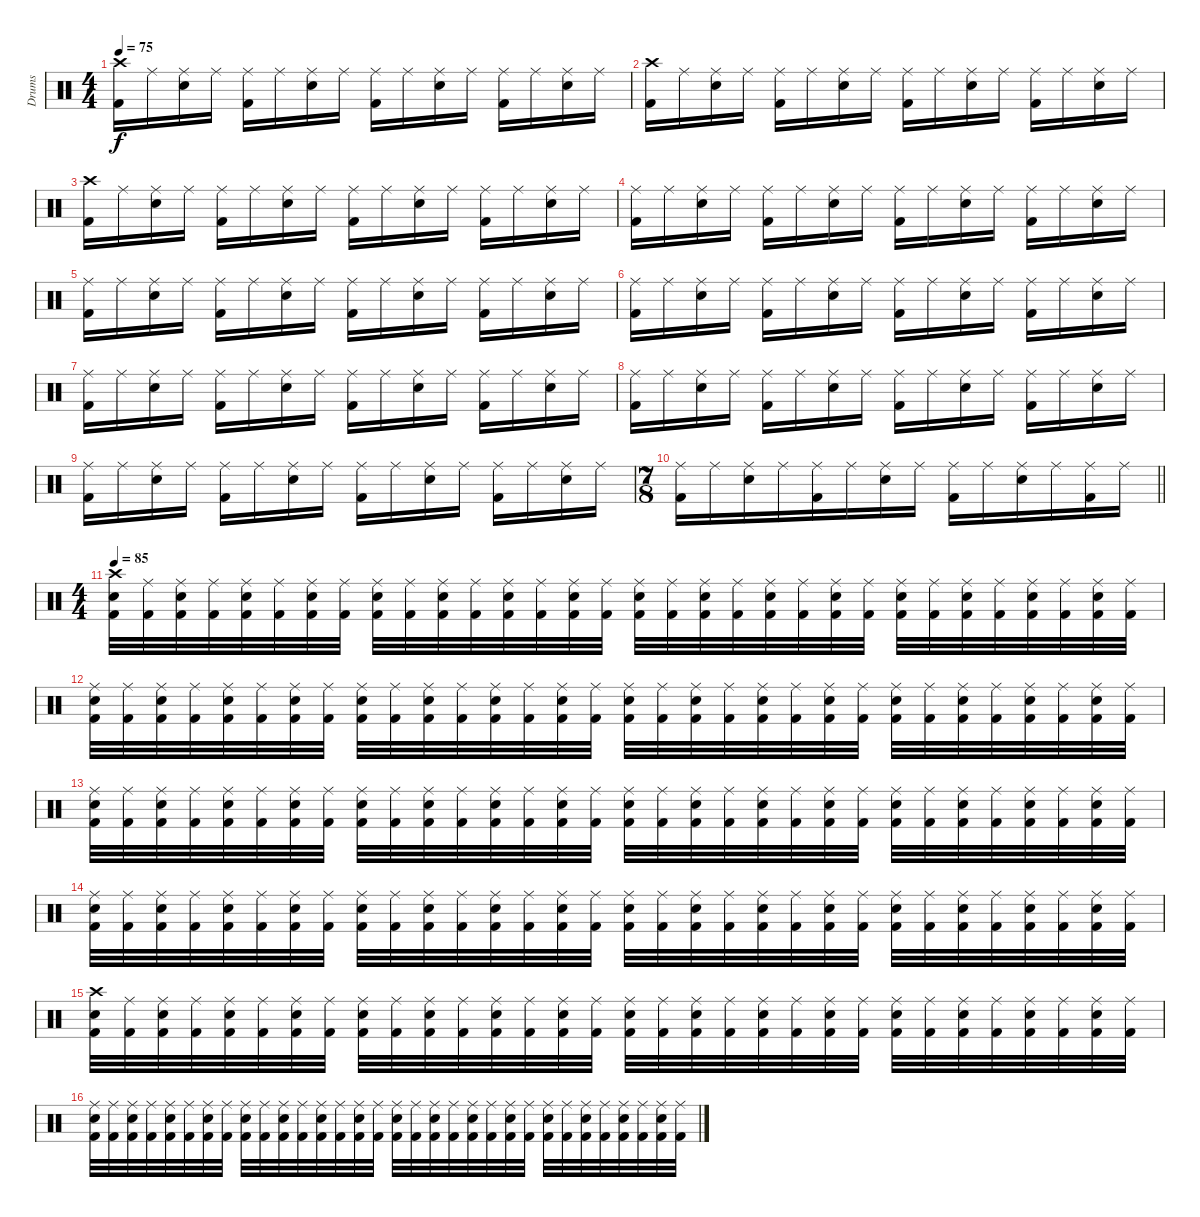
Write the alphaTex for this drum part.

\track ("Drums" "Drums") {instrument percussion}
\staff {score}
\articulation defaults
\ts (4 4)
\tempo 75
\clef neutral
\ks c
("Crash high (hit)" "Kick (hit) 2").16{dy f} "Ride (middle)".16 ("Ride (middle)" "Electric Snare (hit)").16 "Ride (middle)".16 ("Ride (middle)" "Kick (hit) 2").16 "Ride (middle)".16 ("Ride (middle)" "Electric Snare (hit)").16 "Ride (middle)".16 ("Ride (middle)" "Kick (hit) 2").16 "Ride (middle)".16 ("Ride (middle)" "Electric Snare (hit)").16 "Ride (middle)".16 ("Ride (middle)" "Kick (hit) 2").16 "Ride (middle)".16 ("Ride (middle)" "Electric Snare (hit)").16 "Ride (middle)".16 |
("Crash high (hit)" "Kick (hit) 2").16 "Ride (middle)".16 ("Ride (middle)" "Electric Snare (hit)").16 "Ride (middle)".16 ("Ride (middle)" "Kick (hit) 2").16 "Ride (middle)".16 ("Ride (middle)" "Electric Snare (hit)").16 "Ride (middle)".16 ("Ride (middle)" "Kick (hit) 2").16 "Ride (middle)".16 ("Ride (middle)" "Electric Snare (hit)").16 "Ride (middle)".16 ("Ride (middle)" "Kick (hit) 2").16 "Ride (middle)".16 ("Ride (middle)" "Electric Snare (hit)").16 "Ride (middle)".16 |
("Crash high (hit)" "Kick (hit) 2").16 "Ride (middle)".16 ("Ride (middle)" "Electric Snare (hit)").16 "Ride (middle)".16 ("Ride (middle)" "Kick (hit) 2").16 "Ride (middle)".16 ("Ride (middle)" "Electric Snare (hit)").16 "Ride (middle)".16 ("Ride (middle)" "Kick (hit) 2").16 "Ride (middle)".16 ("Ride (middle)" "Electric Snare (hit)").16 "Ride (middle)".16 ("Ride (middle)" "Kick (hit) 2").16 "Ride (middle)".16 ("Ride (middle)" "Electric Snare (hit)").16 "Ride (middle)".16 |
("Ride (middle)" "Kick (hit) 2").16 "Ride (middle)".16 ("Ride (middle)" "Electric Snare (hit)").16 "Ride (middle)".16 ("Ride (middle)" "Kick (hit) 2").16 "Ride (middle)".16 ("Ride (middle)" "Electric Snare (hit)").16 "Ride (middle)".16 ("Ride (middle)" "Kick (hit) 2").16 "Ride (middle)".16 ("Ride (middle)" "Electric Snare (hit)").16 "Ride (middle)".16 ("Ride (middle)" "Kick (hit) 2").16 "Ride (middle)".16 ("Ride (middle)" "Electric Snare (hit)").16 "Ride (middle)".16 |
("Ride (middle)" "Kick (hit) 2").16 "Ride (middle)".16 ("Ride (middle)" "Electric Snare (hit)").16 "Ride (middle)".16 ("Ride (middle)" "Kick (hit) 2").16 "Ride (middle)".16 ("Ride (middle)" "Electric Snare (hit)").16 "Ride (middle)".16 ("Ride (middle)" "Kick (hit) 2").16 "Ride (middle)".16 ("Ride (middle)" "Electric Snare (hit)").16 "Ride (middle)".16 ("Ride (middle)" "Kick (hit) 2").16 "Ride (middle)".16 ("Ride (middle)" "Electric Snare (hit)").16 "Ride (middle)".16 |
("Ride (middle)" "Kick (hit) 2").16 "Ride (middle)".16 ("Ride (middle)" "Electric Snare (hit)").16 "Ride (middle)".16 ("Ride (middle)" "Kick (hit) 2").16 "Ride (middle)".16 ("Ride (middle)" "Electric Snare (hit)").16 "Ride (middle)".16 ("Ride (middle)" "Kick (hit) 2").16 "Ride (middle)".16 ("Ride (middle)" "Electric Snare (hit)").16 "Ride (middle)".16 ("Ride (middle)" "Kick (hit) 2").16 "Ride (middle)".16 ("Ride (middle)" "Electric Snare (hit)").16 "Ride (middle)".16 |
("Ride (middle)" "Kick (hit) 2").16 "Ride (middle)".16 ("Ride (middle)" "Electric Snare (hit)").16 "Ride (middle)".16 ("Ride (middle)" "Kick (hit) 2").16 "Ride (middle)".16 ("Ride (middle)" "Electric Snare (hit)").16 "Ride (middle)".16 ("Ride (middle)" "Kick (hit) 2").16 "Ride (middle)".16 ("Ride (middle)" "Electric Snare (hit)").16 "Ride (middle)".16 ("Ride (middle)" "Kick (hit) 2").16 "Ride (middle)".16 ("Ride (middle)" "Electric Snare (hit)").16 "Ride (middle)".16 |
("Ride (middle)" "Kick (hit) 2").16 "Ride (middle)".16 ("Ride (middle)" "Electric Snare (hit)").16 "Ride (middle)".16 ("Ride (middle)" "Kick (hit) 2").16 "Ride (middle)".16 ("Ride (middle)" "Electric Snare (hit)").16 "Ride (middle)".16 ("Ride (middle)" "Kick (hit) 2").16 "Ride (middle)".16 ("Ride (middle)" "Electric Snare (hit)").16 "Ride (middle)".16 ("Ride (middle)" "Kick (hit) 2").16 "Ride (middle)".16 ("Ride (middle)" "Electric Snare (hit)").16 "Ride (middle)".16 |
("Ride (middle)" "Kick (hit) 2").16 "Ride (middle)".16 ("Ride (middle)" "Electric Snare (hit)").16 "Ride (middle)".16 ("Ride (middle)" "Kick (hit) 2").16 "Ride (middle)".16 ("Ride (middle)" "Electric Snare (hit)").16 "Ride (middle)".16 ("Ride (middle)" "Kick (hit) 2").16 "Ride (middle)".16 ("Ride (middle)" "Electric Snare (hit)").16 "Ride (middle)".16 ("Ride (middle)" "Kick (hit) 2").16 "Ride (middle)".16 ("Ride (middle)" "Electric Snare (hit)").16 "Ride (middle)".16 |
\ts (7 8)
\barLineRight lightlight
("Ride (middle)" "Kick (hit) 2").16 "Ride (middle)".16 ("Ride (middle)" "Electric Snare (hit)").16 "Ride (middle)".16 ("Ride (middle)" "Kick (hit) 2").16 "Ride (middle)".16 ("Ride (middle)" "Electric Snare (hit)").16 "Ride (middle)".16 ("Ride (middle)" "Kick (hit) 2").16 "Ride (middle)".16 ("Ride (middle)" "Electric Snare (hit)").16 "Ride (middle)".16 ("Ride (middle)" "Kick (hit) 2").16 "Ride (middle)".16 |
\ts (4 4)
\tempo 85
("Crash high (hit)" "Electric Snare (hit)" "Kick (hit) 2").32 ("Ride (middle)" "Kick (hit) 2").32 ("Ride (middle)" "Electric Snare (hit)" "Kick (hit) 2").32 ("Ride (middle)" "Kick (hit) 2").32 ("Ride (middle)" "Electric Snare (hit)" "Kick (hit) 2").32 ("Ride (middle)" "Kick (hit) 2").32 ("Ride (middle)" "Electric Snare (hit)" "Kick (hit) 2").32 ("Ride (middle)" "Kick (hit) 2").32 ("Ride (middle)" "Electric Snare (hit)" "Kick (hit) 2").32 ("Ride (middle)" "Kick (hit) 2").32 ("Ride (middle)" "Electric Snare (hit)" "Kick (hit) 2").32 ("Ride (middle)" "Kick (hit) 2").32 ("Ride (middle)" "Electric Snare (hit)" "Kick (hit) 2").32 ("Ride (middle)" "Kick (hit) 2").32 ("Ride (middle)" "Electric Snare (hit)" "Kick (hit) 2").32 ("Ride (middle)" "Kick (hit) 2").32 ("Ride (middle)" "Electric Snare (hit)" "Kick (hit) 2").32 ("Ride (middle)" "Kick (hit) 2").32 ("Ride (middle)" "Electric Snare (hit)" "Kick (hit) 2").32 ("Ride (middle)" "Kick (hit) 2").32 ("Ride (middle)" "Electric Snare (hit)" "Kick (hit) 2").32 ("Ride (middle)" "Kick (hit) 2").32 ("Ride (middle)" "Electric Snare (hit)" "Kick (hit) 2").32 ("Ride (middle)" "Kick (hit) 2").32 ("Ride (middle)" "Electric Snare (hit)" "Kick (hit) 2").32 ("Ride (middle)" "Kick (hit) 2").32 ("Ride (middle)" "Electric Snare (hit)" "Kick (hit) 2").32 ("Ride (middle)" "Kick (hit) 2").32 ("Ride (middle)" "Electric Snare (hit)" "Kick (hit) 2").32 ("Ride (middle)" "Kick (hit) 2").32 ("Ride (middle)" "Electric Snare (hit)" "Kick (hit) 2").32 ("Ride (middle)" "Kick (hit) 2").32 |
("Ride (middle)" "Electric Snare (hit)" "Kick (hit) 2").32 ("Ride (middle)" "Kick (hit) 2").32 ("Ride (middle)" "Electric Snare (hit)" "Kick (hit) 2").32 ("Ride (middle)" "Kick (hit) 2").32 ("Ride (middle)" "Electric Snare (hit)" "Kick (hit) 2").32 ("Ride (middle)" "Kick (hit) 2").32 ("Ride (middle)" "Electric Snare (hit)" "Kick (hit) 2").32 ("Ride (middle)" "Kick (hit) 2").32 ("Ride (middle)" "Electric Snare (hit)" "Kick (hit) 2").32 ("Ride (middle)" "Kick (hit) 2").32 ("Ride (middle)" "Electric Snare (hit)" "Kick (hit) 2").32 ("Ride (middle)" "Kick (hit) 2").32 ("Ride (middle)" "Electric Snare (hit)" "Kick (hit) 2").32 ("Ride (middle)" "Kick (hit) 2").32 ("Ride (middle)" "Electric Snare (hit)" "Kick (hit) 2").32 ("Ride (middle)" "Kick (hit) 2").32 ("Ride (middle)" "Electric Snare (hit)" "Kick (hit) 2").32 ("Ride (middle)" "Kick (hit) 2").32 ("Ride (middle)" "Electric Snare (hit)" "Kick (hit) 2").32 ("Ride (middle)" "Kick (hit) 2").32 ("Ride (middle)" "Electric Snare (hit)" "Kick (hit) 2").32 ("Ride (middle)" "Kick (hit) 2").32 ("Ride (middle)" "Electric Snare (hit)" "Kick (hit) 2").32 ("Ride (middle)" "Kick (hit) 2").32 ("Ride (middle)" "Electric Snare (hit)" "Kick (hit) 2").32 ("Ride (middle)" "Kick (hit) 2").32 ("Ride (middle)" "Electric Snare (hit)" "Kick (hit) 2").32 ("Ride (middle)" "Kick (hit) 2").32 ("Ride (middle)" "Electric Snare (hit)" "Kick (hit) 2").32 ("Ride (middle)" "Kick (hit) 2").32 ("Ride (middle)" "Electric Snare (hit)" "Kick (hit) 2").32 ("Ride (middle)" "Kick (hit) 2").32 |
("Ride (middle)" "Electric Snare (hit)" "Kick (hit) 2").32 ("Ride (middle)" "Kick (hit) 2").32 ("Ride (middle)" "Electric Snare (hit)" "Kick (hit) 2").32 ("Ride (middle)" "Kick (hit) 2").32 ("Ride (middle)" "Electric Snare (hit)" "Kick (hit) 2").32 ("Ride (middle)" "Kick (hit) 2").32 ("Ride (middle)" "Electric Snare (hit)" "Kick (hit) 2").32 ("Ride (middle)" "Kick (hit) 2").32 ("Ride (middle)" "Electric Snare (hit)" "Kick (hit) 2").32 ("Ride (middle)" "Kick (hit) 2").32 ("Ride (middle)" "Electric Snare (hit)" "Kick (hit) 2").32 ("Ride (middle)" "Kick (hit) 2").32 ("Ride (middle)" "Electric Snare (hit)" "Kick (hit) 2").32 ("Ride (middle)" "Kick (hit) 2").32 ("Ride (middle)" "Electric Snare (hit)" "Kick (hit) 2").32 ("Ride (middle)" "Kick (hit) 2").32 ("Ride (middle)" "Electric Snare (hit)" "Kick (hit) 2").32 ("Ride (middle)" "Kick (hit) 2").32 ("Ride (middle)" "Electric Snare (hit)" "Kick (hit) 2").32 ("Ride (middle)" "Kick (hit) 2").32 ("Ride (middle)" "Electric Snare (hit)" "Kick (hit) 2").32 ("Ride (middle)" "Kick (hit) 2").32 ("Ride (middle)" "Electric Snare (hit)" "Kick (hit) 2").32 ("Ride (middle)" "Kick (hit) 2").32 ("Ride (middle)" "Electric Snare (hit)" "Kick (hit) 2").32 ("Ride (middle)" "Kick (hit) 2").32 ("Ride (middle)" "Electric Snare (hit)" "Kick (hit) 2").32 ("Ride (middle)" "Kick (hit) 2").32 ("Ride (middle)" "Electric Snare (hit)" "Kick (hit) 2").32 ("Ride (middle)" "Kick (hit) 2").32 ("Ride (middle)" "Electric Snare (hit)" "Kick (hit) 2").32 ("Ride (middle)" "Kick (hit) 2").32 |
("Ride (middle)" "Electric Snare (hit)" "Kick (hit) 2").32 ("Ride (middle)" "Kick (hit) 2").32 ("Ride (middle)" "Electric Snare (hit)" "Kick (hit) 2").32 ("Ride (middle)" "Kick (hit) 2").32 ("Ride (middle)" "Electric Snare (hit)" "Kick (hit) 2").32 ("Ride (middle)" "Kick (hit) 2").32 ("Ride (middle)" "Electric Snare (hit)" "Kick (hit) 2").32 ("Ride (middle)" "Kick (hit) 2").32 ("Ride (middle)" "Electric Snare (hit)" "Kick (hit) 2").32 ("Ride (middle)" "Kick (hit) 2").32 ("Ride (middle)" "Electric Snare (hit)" "Kick (hit) 2").32 ("Ride (middle)" "Kick (hit) 2").32 ("Ride (middle)" "Electric Snare (hit)" "Kick (hit) 2").32 ("Ride (middle)" "Kick (hit) 2").32 ("Ride (middle)" "Electric Snare (hit)" "Kick (hit) 2").32 ("Ride (middle)" "Kick (hit) 2").32 ("Ride (middle)" "Electric Snare (hit)" "Kick (hit) 2").32 ("Ride (middle)" "Kick (hit) 2").32 ("Ride (middle)" "Electric Snare (hit)" "Kick (hit) 2").32 ("Ride (middle)" "Kick (hit) 2").32 ("Ride (middle)" "Electric Snare (hit)" "Kick (hit) 2").32 ("Ride (middle)" "Kick (hit) 2").32 ("Ride (middle)" "Electric Snare (hit)" "Kick (hit) 2").32 ("Ride (middle)" "Kick (hit) 2").32 ("Ride (middle)" "Electric Snare (hit)" "Kick (hit) 2").32 ("Ride (middle)" "Kick (hit) 2").32 ("Ride (middle)" "Electric Snare (hit)" "Kick (hit) 2").32 ("Ride (middle)" "Kick (hit) 2").32 ("Ride (middle)" "Electric Snare (hit)" "Kick (hit) 2").32 ("Ride (middle)" "Kick (hit) 2").32 ("Ride (middle)" "Electric Snare (hit)" "Kick (hit) 2").32 ("Ride (middle)" "Kick (hit) 2").32 |
("Crash high (hit)" "Electric Snare (hit)" "Kick (hit) 2").32 ("Ride (middle)" "Kick (hit) 2").32 ("Ride (middle)" "Electric Snare (hit)" "Kick (hit) 2").32 ("Ride (middle)" "Kick (hit) 2").32 ("Ride (middle)" "Electric Snare (hit)" "Kick (hit) 2").32 ("Ride (middle)" "Kick (hit) 2").32 ("Ride (middle)" "Electric Snare (hit)" "Kick (hit) 2").32 ("Ride (middle)" "Kick (hit) 2").32 ("Ride (middle)" "Electric Snare (hit)" "Kick (hit) 2").32 ("Ride (middle)" "Kick (hit) 2").32 ("Ride (middle)" "Electric Snare (hit)" "Kick (hit) 2").32 ("Ride (middle)" "Kick (hit) 2").32 ("Ride (middle)" "Electric Snare (hit)" "Kick (hit) 2").32 ("Ride (middle)" "Kick (hit) 2").32 ("Ride (middle)" "Electric Snare (hit)" "Kick (hit) 2").32 ("Ride (middle)" "Kick (hit) 2").32 ("Ride (middle)" "Electric Snare (hit)" "Kick (hit) 2").32 ("Ride (middle)" "Kick (hit) 2").32 ("Ride (middle)" "Electric Snare (hit)" "Kick (hit) 2").32 ("Ride (middle)" "Kick (hit) 2").32 ("Ride (middle)" "Electric Snare (hit)" "Kick (hit) 2").32 ("Ride (middle)" "Kick (hit) 2").32 ("Ride (middle)" "Electric Snare (hit)" "Kick (hit) 2").32 ("Ride (middle)" "Kick (hit) 2").32 ("Ride (middle)" "Electric Snare (hit)" "Kick (hit) 2").32 ("Ride (middle)" "Kick (hit) 2").32 ("Ride (middle)" "Electric Snare (hit)" "Kick (hit) 2").32 ("Ride (middle)" "Kick (hit) 2").32 ("Ride (middle)" "Electric Snare (hit)" "Kick (hit) 2").32 ("Ride (middle)" "Kick (hit) 2").32 ("Ride (middle)" "Electric Snare (hit)" "Kick (hit) 2").32 ("Ride (middle)" "Kick (hit) 2").32 |
("Ride (middle)" "Electric Snare (hit)" "Kick (hit) 2").32 ("Ride (middle)" "Kick (hit) 2").32 ("Ride (middle)" "Electric Snare (hit)" "Kick (hit) 2").32 ("Ride (middle)" "Kick (hit) 2").32 ("Ride (middle)" "Electric Snare (hit)" "Kick (hit) 2").32 ("Ride (middle)" "Kick (hit) 2").32 ("Ride (middle)" "Electric Snare (hit)" "Kick (hit) 2").32 ("Ride (middle)" "Kick (hit) 2").32 ("Ride (middle)" "Electric Snare (hit)" "Kick (hit) 2").32 ("Ride (middle)" "Kick (hit) 2").32 ("Ride (middle)" "Electric Snare (hit)" "Kick (hit) 2").32 ("Ride (middle)" "Kick (hit) 2").32 ("Ride (middle)" "Electric Snare (hit)" "Kick (hit) 2").32 ("Ride (middle)" "Kick (hit) 2").32 ("Ride (middle)" "Electric Snare (hit)" "Kick (hit) 2").32 ("Ride (middle)" "Kick (hit) 2").32 ("Ride (middle)" "Electric Snare (hit)" "Kick (hit) 2").32 ("Ride (middle)" "Kick (hit) 2").32 ("Ride (middle)" "Electric Snare (hit)" "Kick (hit) 2").32 ("Ride (middle)" "Kick (hit) 2").32 ("Ride (middle)" "Electric Snare (hit)" "Kick (hit) 2").32 ("Ride (middle)" "Kick (hit) 2").32 ("Ride (middle)" "Electric Snare (hit)" "Kick (hit) 2").32 ("Ride (middle)" "Kick (hit) 2").32 ("Ride (middle)" "Electric Snare (hit)" "Kick (hit) 2").32 ("Ride (middle)" "Kick (hit) 2").32 ("Ride (middle)" "Electric Snare (hit)" "Kick (hit) 2").32 ("Ride (middle)" "Kick (hit) 2").32 ("Ride (middle)" "Electric Snare (hit)" "Kick (hit) 2").32 ("Ride (middle)" "Kick (hit) 2").32 ("Ride (middle)" "Electric Snare (hit)" "Kick (hit) 2").32 ("Ride (middle)" "Kick (hit) 2").32
